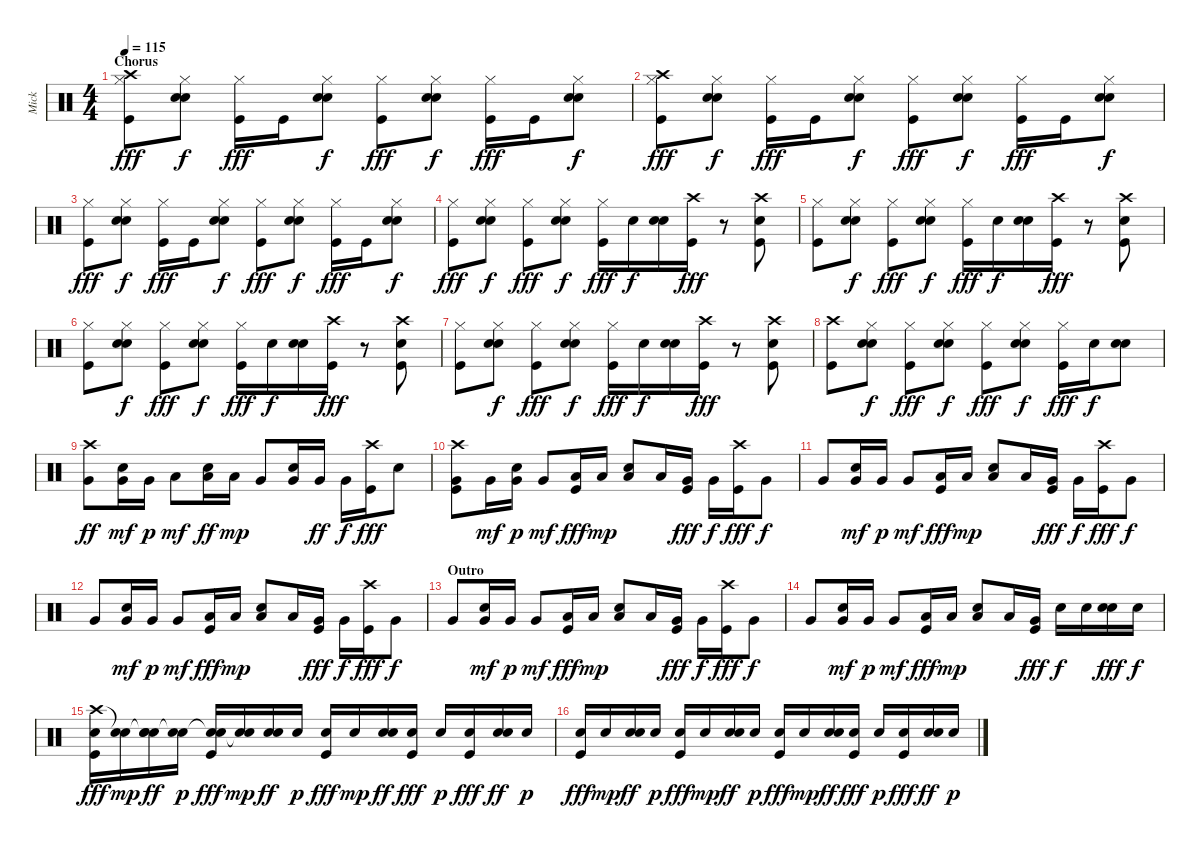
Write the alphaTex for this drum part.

\track ("Mick" "Mick") {instrument percussion}
\staff {score}
\articulation defaults
\ts (4 4)
\section ("" "Chorus")
\tempo 115
\clef neutral
\ks c
("Crash high (hit)" "Hi-Hat (closed)" "Kick (hit)").8{dy fff} ("Hand Clap (hit)" "Hi-Hat (closed)" "Electric Snare (hit)").8{dy f} ("Hi-Hat (closed)" "Kick (hit)").16{dy fff} "Kick (hit)".16 ("Hand Clap (hit)" "Hi-Hat (closed)" "Electric Snare (hit)").8{dy f} ("Hi-Hat (closed)" "Kick (hit)").8{dy fff} ("Hand Clap (hit)" "Hi-Hat (closed)" "Electric Snare (hit)").8{dy f} ("Hi-Hat (closed)" "Kick (hit)").16{dy fff} "Kick (hit)".16 ("Hand Clap (hit)" "Hi-Hat (closed)" "Electric Snare (hit)").8{dy f} |
("Crash high (hit)" "Hi-Hat (closed)" "Kick (hit)").8{dy fff} ("Hand Clap (hit)" "Hi-Hat (closed)" "Electric Snare (hit)").8{dy f} ("Hi-Hat (closed)" "Kick (hit)").16{dy fff} "Kick (hit)".16 ("Hand Clap (hit)" "Hi-Hat (closed)" "Electric Snare (hit)").8{dy f} ("Hi-Hat (closed)" "Kick (hit)").8{dy fff} ("Hand Clap (hit)" "Hi-Hat (closed)" "Electric Snare (hit)").8{dy f} ("Hi-Hat (closed)" "Kick (hit)").16{dy fff} "Kick (hit)".16 ("Hand Clap (hit)" "Hi-Hat (closed)" "Electric Snare (hit)").8{dy f} |
("Hi-Hat (closed)" "Kick (hit)").8{dy fff} ("Hand Clap (hit)" "Hi-Hat (closed)" "Electric Snare (hit)").8{dy f} ("Hi-Hat (closed)" "Kick (hit)").16{dy fff} "Kick (hit)".16 ("Hand Clap (hit)" "Hi-Hat (closed)" "Electric Snare (hit)").8{dy f} ("Hi-Hat (closed)" "Kick (hit)").8{dy fff} ("Hand Clap (hit)" "Hi-Hat (closed)" "Electric Snare (hit)").8{dy f} ("Hi-Hat (closed)" "Kick (hit)").16{dy fff} "Kick (hit)".16 ("Hand Clap (hit)" "Hi-Hat (closed)" "Electric Snare (hit)").8{dy f} |
("Hi-Hat (closed)" "Kick (hit)").8{dy fff} ("Hand Clap (hit)" "Hi-Hat (closed)" "Electric Snare (hit)").8{dy f} ("Hi-Hat (closed)" "Kick (hit)").8{dy fff} ("Hand Clap (hit)" "Hi-Hat (closed)" "Electric Snare (hit)").8{dy f} ("Hi-Hat (closed)" "Kick (hit)").16{dy fff} "Electric Snare (hit)".16{dy f} ("Hand Clap (hit)" "Electric Snare (hit)").16 ("Crash high (hit)" "Kick (hit)").16{dy fff} r.8 ("Crash high (hit)" "Hand Clap (hit)" "Kick (hit)").8 |
("Hi-Hat (closed)" "Kick (hit)").8 ("Hand Clap (hit)" "Hi-Hat (closed)" "Electric Snare (hit)").8{dy f} ("Hi-Hat (closed)" "Kick (hit)").8{dy fff} ("Hand Clap (hit)" "Hi-Hat (closed)" "Electric Snare (hit)").8{dy f} ("Hi-Hat (closed)" "Kick (hit)").16{dy fff} "Electric Snare (hit)".16{dy f} ("Hand Clap (hit)" "Electric Snare (hit)").16 ("Crash high (hit)" "Kick (hit)").16{dy fff} r.8 ("Crash high (hit)" "Hand Clap (hit)" "Kick (hit)").8 |
("Hi-Hat (closed)" "Kick (hit)").8 ("Hand Clap (hit)" "Hi-Hat (closed)" "Electric Snare (hit)").8{dy f} ("Hi-Hat (closed)" "Kick (hit)").8{dy fff} ("Hand Clap (hit)" "Hi-Hat (closed)" "Electric Snare (hit)").8{dy f} ("Hi-Hat (closed)" "Kick (hit)").16{dy fff} "Electric Snare (hit)".16{dy f} ("Hand Clap (hit)" "Electric Snare (hit)").16 ("Crash high (hit)" "Kick (hit)").16{dy fff} r.8 ("Crash high (hit)" "Hand Clap (hit)" "Kick (hit)").8 |
("Hi-Hat (closed)" "Kick (hit)").8 ("Hand Clap (hit)" "Hi-Hat (closed)" "Electric Snare (hit)").8{dy f} ("Hi-Hat (closed)" "Kick (hit)").8{dy fff} ("Hand Clap (hit)" "Hi-Hat (closed)" "Electric Snare (hit)").8{dy f} ("Hi-Hat (closed)" "Kick (hit)").16{dy fff} "Electric Snare (hit)".16{dy f} ("Hand Clap (hit)" "Electric Snare (hit)").16 ("Crash high (hit)" "Kick (hit)").16{dy fff} r.8 ("Crash high (hit)" "Hand Clap (hit)" "Kick (hit)").8 |
("Crash high (hit)" "Kick (hit)").8 ("Hand Clap (hit)" "Hi-Hat (closed)" "Electric Snare (hit)").8{dy f} ("Hi-Hat (closed)" "Kick (hit)").8{dy fff} ("Hand Clap (hit)" "Hi-Hat (closed)" "Electric Snare (hit)").8{dy f} ("Hi-Hat (closed)" "Kick (hit)").8{dy fff} ("Hand Clap (hit)" "Hi-Hat (closed)" "Electric Snare (hit)").8{dy f} ("Hi-Hat (closed)" "Kick (hit)").16{dy fff} "Electric Snare (hit)".16{dy f} ("Hand Clap (hit)" "Electric Snare (hit)").8 |
("Crash high (hit)" "Very Low Tom (hit)").8{dy ff} ("Hand Clap (hit)" "Very Low Tom (hit)").16{dy mf} "Very Low Tom (hit)".16{dy p} "Low Floor Tom (hit)".8{dy mf} ("Hand Clap (hit)" "Low Floor Tom (hit)").16{dy ff} "Low Floor Tom (hit)".16{dy mp} "Very Low Tom (hit)".8 ("Hand Clap (hit)" "Very Low Tom (hit)").16 "Very Low Tom (hit)".16{dy ff} "Very Low Tom (hit)".16{dy f} ("Crash high (hit)" "Kick (hit)").16{dy fff} "Hand Clap (hit)".8 |
("Crash high (hit)" "Very Low Tom (hit)" "Kick (hit)").8 "Very Low Tom (hit)".16{dy mf} ("Hand Clap (hit)" "Very Low Tom (hit)").16{dy p} "Very Low Tom (hit)".8{dy mf} ("Low Floor Tom (hit)" "Kick (hit)").16{dy fff} "Low Floor Tom (hit)".16{dy mp} ("Hand Clap (hit)" "Low Floor Tom (hit)").8 "Low Floor Tom (hit)".16 ("Very Low Tom (hit)" "Kick (hit)").16{dy fff} "Very Low Tom (hit)".16{dy f} ("Crash high (hit)" "Kick (hit)").16{dy fff} "Very Low Tom (hit)".8{dy f} |
"Very Low Tom (hit)".8 ("Hand Clap (hit)" "Very Low Tom (hit)").16{dy mf} "Very Low Tom (hit)".16{dy p} "Very Low Tom (hit)".8{dy mf} ("Low Floor Tom (hit)" "Kick (hit)").16{dy fff} "Low Floor Tom (hit)".16{dy mp} ("Hand Clap (hit)" "Low Floor Tom (hit)").8 "Low Floor Tom (hit)".16 ("Very Low Tom (hit)" "Kick (hit)").16{dy fff} "Very Low Tom (hit)".16{dy f} ("Crash high (hit)" "Kick (hit)").16{dy fff} "Very Low Tom (hit)".8{dy f} |
"Very Low Tom (hit)".8 ("Hand Clap (hit)" "Very Low Tom (hit)").16{dy mf} "Very Low Tom (hit)".16{dy p} "Very Low Tom (hit)".8{dy mf} ("Low Floor Tom (hit)" "Kick (hit)").16{dy fff} "Low Floor Tom (hit)".16{dy mp} ("Hand Clap (hit)" "Low Floor Tom (hit)").8 "Low Floor Tom (hit)".16 ("Very Low Tom (hit)" "Kick (hit)").16{dy fff} "Very Low Tom (hit)".16{dy f} ("Crash high (hit)" "Kick (hit)").16{dy fff} "Very Low Tom (hit)".8{dy f} |
\section ("" "Outro")
"Very Low Tom (hit)".8 ("Hand Clap (hit)" "Very Low Tom (hit)").16{dy mf} "Very Low Tom (hit)".16{dy p} "Very Low Tom (hit)".8{dy mf} ("Low Floor Tom (hit)" "Kick (hit)").16{dy fff} "Low Floor Tom (hit)".16{dy mp} ("Hand Clap (hit)" "Low Floor Tom (hit)").8 "Low Floor Tom (hit)".16 ("Very Low Tom (hit)" "Kick (hit)").16{dy fff} "Very Low Tom (hit)".16{dy f} ("Crash high (hit)" "Kick (hit)").16{dy fff} "Very Low Tom (hit)".8{dy f} |
"Very Low Tom (hit)".8 ("Hand Clap (hit)" "Very Low Tom (hit)").16{dy mf} "Very Low Tom (hit)".16{dy p} "Very Low Tom (hit)".8{dy mf} ("Low Floor Tom (hit)" "Kick (hit)").16{dy fff} "Low Floor Tom (hit)".16{dy mp} ("Hand Clap (hit)" "Low Floor Tom (hit)").8 "Low Floor Tom (hit)".16 ("Very Low Tom (hit)" "Kick (hit)").16{dy fff} "Electric Snare (hit)".16{dy f} "Electric Snare (hit)".16 ("Hand Clap (hit)" "Electric Snare (hit)").16{dy fff} "Electric Snare (hit)".16{dy f} |
("Crash high (hit)" "Electric Snare (hit)" "Kick (hit)").16{dy fff} ("Snare (hit)"{t} "Electric Snare (hit)").16{dy mp} ("Snare (hit)"{t} "Hand Clap (hit)" "Electric Snare (hit)").16{dy ff} ("Snare (hit)"{t} "Electric Snare (hit)").16{dy p} ("Snare (hit)"{t} "Electric Snare (hit)" "Kick (hit)").16{dy fff} ("Snare (hit)"{t} "Electric Snare (hit)").16{dy mp} ("Hand Clap (hit)" "Electric Snare (hit)").16{dy ff} "Electric Snare (hit)".16{dy p} ("Electric Snare (hit)" "Kick (hit)").16{dy fff} "Electric Snare (hit)".16{dy mp} ("Hand Clap (hit)" "Electric Snare (hit)").16{dy ff} ("Electric Snare (hit)" "Kick (hit)").16{dy fff} "Electric Snare (hit)".16{dy p} ("Electric Snare (hit)" "Kick (hit)").16{dy fff} ("Hand Clap (hit)" "Electric Snare (hit)").16{dy ff} "Electric Snare (hit)".16{dy p} |
("Electric Snare (hit)" "Kick (hit)").16{dy fff} "Electric Snare (hit)".16{dy mp} ("Hand Clap (hit)" "Electric Snare (hit)").16{dy ff} "Electric Snare (hit)".16{dy p} ("Electric Snare (hit)" "Kick (hit)").16{dy fff} "Electric Snare (hit)".16{dy mp} ("Hand Clap (hit)" "Electric Snare (hit)").16{dy ff} "Electric Snare (hit)".16{dy p} ("Electric Snare (hit)" "Kick (hit)").16{dy fff} "Electric Snare (hit)".16{dy mp} ("Hand Clap (hit)" "Electric Snare (hit)").16{dy ff} ("Electric Snare (hit)" "Kick (hit)").16{dy fff} "Electric Snare (hit)".16{dy p} ("Electric Snare (hit)" "Kick (hit)").16{dy fff} ("Hand Clap (hit)" "Electric Snare (hit)").16{dy ff} "Electric Snare (hit)".16{dy p}
